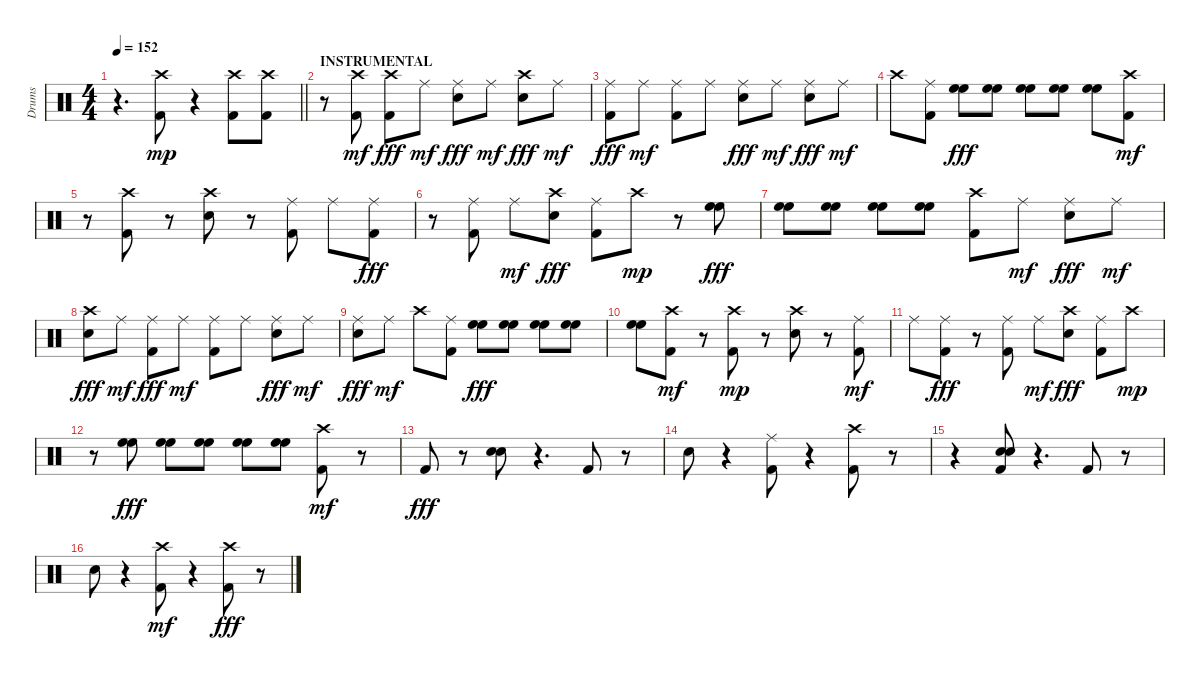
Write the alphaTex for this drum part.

\track ("Drums" "Drums") {instrument percussion}
\staff {score}
\articulation defaults
\ts (4 4)
\tempo 152
\clef neutral
\barLineRight lightlight
\ks c
r.4{d dy mp} ("Kick (hit) 2" "Crash high (hit)").8 r.4 ("Kick (hit) 2" "Crash high (hit)").8 ("Kick (hit) 2" "Crash high (hit)").8 |
\section ("" "INSTRUMENTAL")
r.8 ("Kick (hit) 2" "Crash high (hit)").8{dy mf} ("Crash high (hit)" "Kick (hit) 2").8{dy fff} "Ride (middle)".8{dy mf} ("Ride (middle)" "Electric Snare (hit)").8{dy fff} "Ride (middle)".8{dy mf} ("Crash high (hit)" "Electric Snare (hit)").8{dy fff} "Ride (middle)".8{dy mf} |
("Ride (middle)" "Kick (hit) 2").8{dy fff} "Ride (middle)".8{dy mf} ("Kick (hit) 2" "Ride (middle)").8 "Ride (middle)".8 ("Ride (middle)" "Electric Snare (hit)").8{dy fff} "Ride (middle)".8{dy mf} ("Ride (middle)" "Electric Snare (hit)").8{dy fff} "Ride (middle)".8{dy mf} |
"Crash high (hit)".8 ("Kick (hit) 2" "Ride (middle)").8 ("High Floor Tom (hit)" "High Floor Tom (hit)").8{dy fff} ("High Floor Tom (hit)" "High Floor Tom (hit)").8 ("High Floor Tom (hit)" "High Floor Tom (hit)").8 ("High Floor Tom (hit)" "High Floor Tom (hit)").8 ("High Floor Tom (hit)" "High Floor Tom (hit)").8 ("Kick (hit) 2" "Crash high (hit)").8{dy mf} |
r.8 ("Kick (hit) 2" "Crash high (hit)").8 r.8 ("Electric Snare (hit)" "Crash high (hit)").8 r.8 ("Kick (hit) 2" "Ride (middle)").8 "Ride (middle)".8 ("Ride (middle)" "Kick (hit) 2").8{dy fff} |
r.8 ("Ride (middle)" "Kick (hit) 2").8 "Ride (middle)".8{dy mf} ("Crash high (hit)" "Electric Snare (hit)").8{dy fff} ("Ride (middle)" "Kick (hit) 2").8 "Crash high (hit)".8{dy mp} r.8 ("High Floor Tom (hit)" "High Floor Tom (hit)").8{dy fff} |
("High Floor Tom (hit)" "High Floor Tom (hit)").8 ("High Floor Tom (hit)" "High Floor Tom (hit)").8 ("High Floor Tom (hit)" "High Floor Tom (hit)").8 ("High Floor Tom (hit)" "High Floor Tom (hit)").8 ("Crash high (hit)" "Kick (hit) 2").8 "Ride (middle)".8{dy mf} ("Ride (middle)" "Electric Snare (hit)").8{dy fff} "Ride (middle)".8{dy mf} |
("Crash high (hit)" "Electric Snare (hit)").8{dy fff} "Ride (middle)".8{dy mf} ("Ride (middle)" "Kick (hit) 2").8{dy fff} "Ride (middle)".8{dy mf} ("Kick (hit) 2" "Ride (middle)").8 "Ride (middle)".8 ("Ride (middle)" "Electric Snare (hit)").8{dy fff} "Ride (middle)".8{dy mf} |
("Ride (middle)" "Electric Snare (hit)").8{dy fff} "Ride (middle)".8{dy mf} "Crash high (hit)".8 ("Kick (hit) 2" "Ride (middle)").8 ("High Floor Tom (hit)" "High Floor Tom (hit)").8{dy fff} ("High Floor Tom (hit)" "High Floor Tom (hit)").8 ("High Floor Tom (hit)" "High Floor Tom (hit)").8 ("High Floor Tom (hit)" "High Floor Tom (hit)").8 |
("High Floor Tom (hit)" "High Floor Tom (hit)").8 ("Kick (hit) 2" "Crash high (hit)").8{dy mf} r.8 ("Kick (hit) 2" "Crash high (hit)").8{dy mp} r.8 ("Electric Snare (hit)" "Crash high (hit)").8 r.8 ("Kick (hit) 2" "Ride (middle)").8{dy mf} |
"Ride (middle)".8 ("Ride (middle)" "Kick (hit) 2").8{dy fff} r.8 ("Ride (middle)" "Kick (hit) 2").8 "Ride (middle)".8{dy mf} ("Crash high (hit)" "Electric Snare (hit)").8{dy fff} ("Ride (middle)" "Kick (hit) 2").8 "Crash high (hit)".8{dy mp} |
r.8 ("High Floor Tom (hit)" "High Floor Tom (hit)").8{dy fff} ("High Floor Tom (hit)" "High Floor Tom (hit)").8 ("High Floor Tom (hit)" "High Floor Tom (hit)").8 ("High Floor Tom (hit)" "High Floor Tom (hit)").8 ("High Floor Tom (hit)" "High Floor Tom (hit)").8 ("Kick (hit) 2" "Crash high (hit)").8{dy mf} r.8 |
"Kick (hit) 2".8{dy fff} r.8 ("Electric Snare (hit)" "Electric Snare (hit)").8 r.4{d} "Kick (hit) 2".8 r.8 |
"Electric Snare (hit)".8 r.4 ("Ride (middle)" "Kick (hit) 2").8 r.4 ("Crash high (hit)" "Kick (hit) 2").8 r.8 |
r.4 ("Electric Snare (hit)" "Kick (hit) 2" "Electric Snare (hit)").8 r.4{d} "Kick (hit) 2".8 r.8 |
"Electric Snare (hit)".8 r.4 ("Kick (hit) 2" "Crash high (hit)").8{dy mf} r.4 ("Crash high (hit)" "Kick (hit) 2").8{dy fff} r.8
